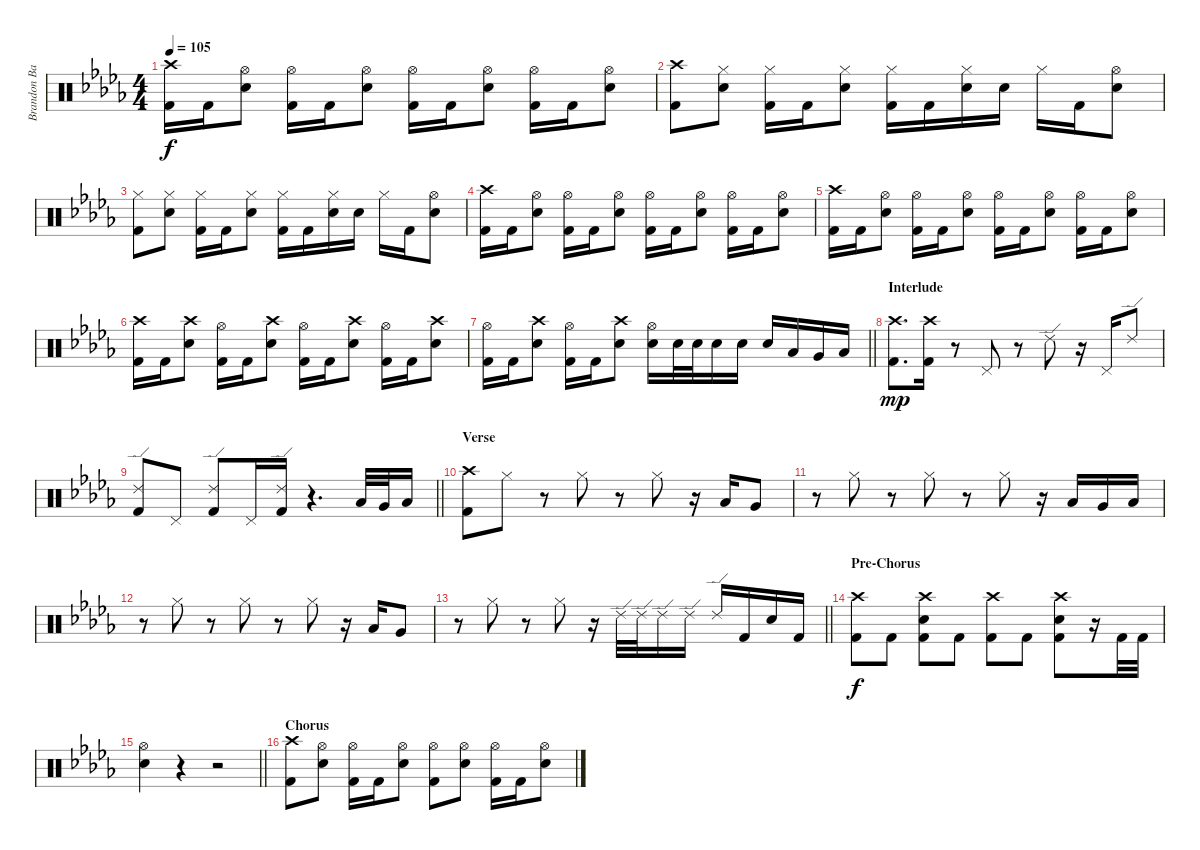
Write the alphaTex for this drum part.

\track ("Brandon Barnes - Drums" "Brandon Ba") {instrument percussion}
\staff {score}
\articulation defaults
\ts (4 4)
\tempo 105
\clef neutral
\ks db
("Crash high (hit)" "Kick (hit) 2").16{dy f} "Kick (hit) 2".16 ("Snare (hit) 2" "Hi-Hat (open)").8 ("Hi-Hat (open)" "Kick (hit) 2").16 "Kick (hit) 2".16 ("Snare (hit) 2" "Hi-Hat (open)").8 ("Hi-Hat (open)" "Kick (hit) 2").16 "Kick (hit) 2".16 ("Snare (hit) 2" "Hi-Hat (open)").8 ("Hi-Hat (open)" "Kick (hit) 2").16 "Kick (hit) 2".16 ("Snare (hit) 2" "Hi-Hat (open)").8 |
("Crash high (hit)" "Kick (hit) 2").8 ("Snare (hit) 2" "Hi-Hat (closed)").8 ("Hi-Hat (closed)" "Kick (hit) 2").16 "Kick (hit) 2".16 ("Snare (hit) 2" "Hi-Hat (closed)").8 ("Hi-Hat (closed)" "Kick (hit) 2").16 "Kick (hit) 2".16 ("Snare (hit) 2" "Hi-Hat (closed)").16 "Snare (hit) 2".16 "Hi-Hat (closed)".16 "Kick (hit) 2".16 ("Snare (hit) 2" "Hi-Hat (open)").8 |
("Hi-Hat (closed)" "Kick (hit) 2").8 ("Snare (hit) 2" "Hi-Hat (closed)").8 ("Hi-Hat (closed)" "Kick (hit) 2").16 "Kick (hit) 2".16 ("Snare (hit) 2" "Hi-Hat (closed)").8 ("Hi-Hat (closed)" "Kick (hit) 2").16 "Kick (hit) 2".16 ("Snare (hit) 2" "Hi-Hat (closed)").16 "Snare (hit) 2".16 "Hi-Hat (closed)".16 "Kick (hit) 2".16 ("Snare (hit) 2" "Hi-Hat (open)").8 |
("Crash high (hit)" "Kick (hit) 2").16 "Kick (hit) 2".16 ("Snare (hit) 2" "Hi-Hat (open)").8 ("Hi-Hat (open)" "Kick (hit) 2").16 "Kick (hit) 2".16 ("Snare (hit) 2" "Hi-Hat (open)").8 ("Hi-Hat (open)" "Kick (hit) 2").16 "Kick (hit) 2".16 ("Snare (hit) 2" "Hi-Hat (open)").8 ("Hi-Hat (open)" "Kick (hit) 2").16 "Kick (hit) 2".16 ("Snare (hit) 2" "Hi-Hat (open)").8 |
("Crash high (hit)" "Kick (hit) 2").16 "Kick (hit) 2".16 ("Snare (hit) 2" "Hi-Hat (open)").8 ("Hi-Hat (open)" "Kick (hit) 2").16 "Kick (hit) 2".16 ("Snare (hit) 2" "Hi-Hat (open)").8 ("Hi-Hat (open)" "Kick (hit) 2").16 "Kick (hit) 2".16 ("Snare (hit) 2" "Hi-Hat (open)").8 ("Hi-Hat (open)" "Kick (hit) 2").16 "Kick (hit) 2".16 ("Snare (hit) 2" "Hi-Hat (open)").8 |
("Crash high (hit)" "Kick (hit) 2").16 "Kick (hit) 2".16 ("Snare (hit) 2" "Crash high (hit)").8 ("Hi-Hat (open)" "Kick (hit) 2").16 "Kick (hit) 2".16 ("Crash high (hit)" "Snare (hit) 2").8 ("Hi-Hat (open)" "Kick (hit) 2").16 "Kick (hit) 2".16 ("Crash high (hit)" "Snare (hit) 2").8 ("Hi-Hat (open)" "Kick (hit) 2").16 "Kick (hit) 2".16 ("Crash high (hit)" "Snare (hit) 2").8 |
\barLineRight lightlight
("Hi-Hat (open)" "Kick (hit) 2").16 "Kick (hit) 2".16 ("Crash high (hit)" "Snare (hit) 2").8 ("Hi-Hat (open)" "Kick (hit) 2").16 "Kick (hit) 2".16 ("Crash high (hit)" "Snare (hit) 2").8 ("Snare (hit) 2" "Hi-Hat (open)").16 "Snare (hit) 2".32 "Snare (hit) 2".32 "Snare (hit) 2".16 "Snare (hit) 2".16 "Snare (hit) 2".16 "Low Tom (hit)".16 "Very Low Tom (hit)".16 "Low Floor Tom (hit)".16 |
\section ("" "Interlude")
("Crash high (hit)" "Kick (hit) 2").8{d dy mp} ("Crash high (hit)" "Kick (hit) 2").16 r.8 "Pedal Hi-Hat (hit)".8 r.8 "Ride (edge) 2".8 r.16 "Pedal Hi-Hat (hit)".16 "Ride (edge) 2".8 |
\barLineRight lightlight
("Ride (edge) 2" "Kick (hit) 2").8 "Pedal Hi-Hat (hit)".8 ("Kick (hit) 2" "Ride (edge) 2").8 "Pedal Hi-Hat (hit)".16 ("Kick (hit) 2" "Ride (edge) 2").16 r.4{d} "Low Tom (hit)".32 "Very Low Tom (hit)".32 "Low Floor Tom (hit)".16 |
\section ("" "Verse")
("Crash high (hit)" "Kick (hit) 2").8 "Hi-Hat (closed)".8 r.8 "Hi-Hat (closed)".8 r.8 "Hi-Hat (closed)".8 r.16 "Low Tom (hit)".16 "Very Low Tom (hit)".8 |
r.8 "Hi-Hat (closed)".8 r.8 "Hi-Hat (closed)".8 r.8 "Hi-Hat (closed)".8 r.16 "Low Tom (hit)".16 "Very Low Tom (hit)".16 "Low Floor Tom (hit)".16 |
r.8 "Hi-Hat (closed)".8 r.8 "Hi-Hat (closed)".8 r.8 "Hi-Hat (closed)".8 r.16 "Low Tom (hit)".16 "Very Low Tom (hit)".8 |
\barLineRight lightlight
r.8 "Hi-Hat (closed)".8 r.8 "Hi-Hat (closed)".8 r.16 "Ride (edge) 2".32 "Ride (edge) 2".32 "Ride (edge) 2".16 "Ride (edge) 2".16 "Ride (edge) 2".16 "Kick (hit) 2".16 "Snare (hit) 2".16 "Kick (hit) 2".16 |
\section ("" "Pre-Chorus")
("Crash high (hit)" "Kick (hit) 2").8{dy f} "Kick (hit) 2".8 ("Snare (hit) 2" "Kick (hit) 2" "Crash high (hit)").8 "Kick (hit) 2".8 ("Kick (hit) 2" "Crash high (hit)").8 "Kick (hit) 2".8 ("Kick (hit) 2" "Snare (hit) 2" "Crash high (hit)").8 r.16 "Kick (hit) 2".32 "Kick (hit) 2".32 |
\barLineRight lightlight
("Snare (hit) 2" "Hi-Hat (open)").4 r.4{volume 0} r.2 |
\section ("" "Chorus")
("Crash high (hit)" "Kick (hit) 2").8{volume 11} ("Snare (hit) 2" "Hi-Hat (open)").8 ("Kick (hit) 2" "Hi-Hat (open)").16 "Kick (hit) 2".16 ("Snare (hit) 2" "Hi-Hat (open)").8 ("Hi-Hat (open)" "Kick (hit) 2").8 ("Snare (hit) 2" "Hi-Hat (open)").8 ("Kick (hit) 2" "Hi-Hat (open)").16 "Kick (hit) 2".16 ("Snare (hit) 2" "Hi-Hat (open)").8
